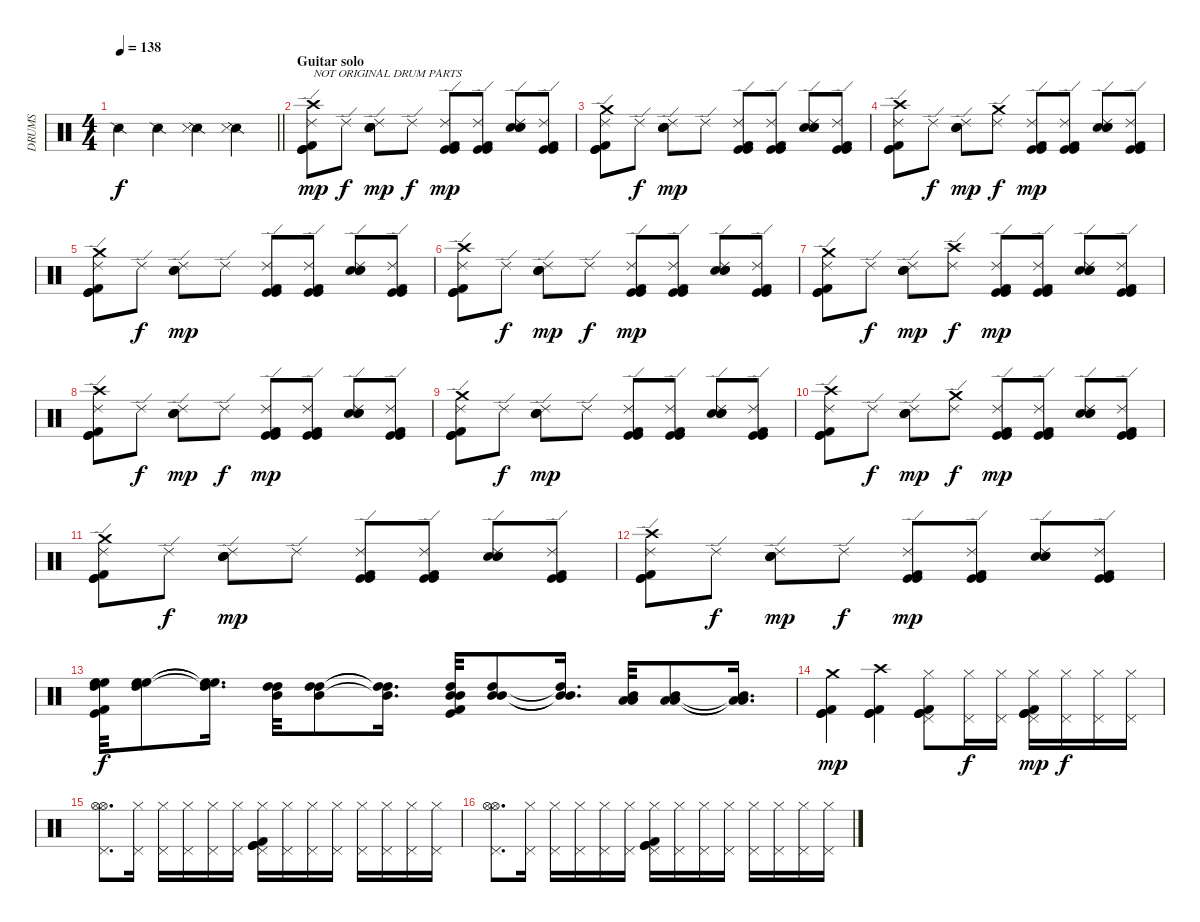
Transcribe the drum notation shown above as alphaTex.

\track ("DRUMS" "DRUMS") {instrument percussion}
\staff {score}
\articulation defaults
\ts (4 4)
\tempo 138
\clef neutral
\barLineRight lightlight
\ks c "Snare (side stick) 2".4{dy f} "Snare (side stick) 2".4
("Snare (side stick) 2" "Snare (side stick) 3").4 ("Snare (side stick) 2" "Snare (side stick) 3").4 |
\section ("" "Guitar solo")
("Ride (edge) 2" "Kick (hit) 2" "Kick (hit)" "Kick (hit)" "Crash high (hit)").8{txt "NOT ORIGINAL DRUM PARTS" dy mp} "Ride (edge) 2".8{dy f} ("Ride (edge) 2" "Electric Snare (hit)" "Snare (hit) 2" "Snare (hit) 2").8{dy mp} "Ride (edge) 2".8{dy f} ("Ride (edge) 2" "Kick (hit) 2" "Kick (hit)" "Kick (hit)").8{dy mp} ("Ride (edge) 2" "Kick (hit) 2" "Kick (hit)" "Kick (hit)").8 ("Ride (edge) 2" "Electric Snare (hit)" "Snare (hit) 2" "Snare (hit) 2").8 ("Ride (edge) 2" "Kick (hit) 2" "Kick (hit)" "Kick (hit)").8 |
("Ride (edge) 2" "Kick (hit) 2" "Kick (hit)" "Kick (hit)" "Crash medium (hit)").8 "Ride (edge) 2".8{dy f} ("Ride (edge) 2" "Electric Snare (hit)" "Snare (hit) 2" "Snare (hit) 2").8{dy mp} "Ride (edge) 2".8 ("Ride (edge) 2" "Kick (hit) 2" "Kick (hit)" "Kick (hit)").8 ("Ride (edge) 2" "Kick (hit) 2" "Kick (hit)" "Kick (hit)").8 ("Ride (edge) 2" "Electric Snare (hit)" "Snare (hit) 2" "Snare (hit) 2").8 ("Ride (edge) 2" "Kick (hit) 2" "Kick (hit)" "Kick (hit)").8 |
("Ride (edge) 2" "Kick (hit) 2" "Kick (hit)" "Kick (hit)" "Crash high (hit)").8 "Ride (edge) 2".8{dy f} ("Ride (edge) 2" "Electric Snare (hit)" "Snare (hit) 2" "Snare (hit) 2").8{dy mp} ("Ride (edge) 2" "Crash medium (hit)").8{dy f} ("Ride (edge) 2" "Kick (hit) 2" "Kick (hit)" "Kick (hit)").8{dy mp} ("Ride (edge) 2" "Kick (hit) 2" "Kick (hit)" "Kick (hit)").8 ("Ride (edge) 2" "Electric Snare (hit)" "Snare (hit) 2" "Snare (hit) 2").8 ("Ride (edge) 2" "Kick (hit) 2" "Kick (hit)" "Kick (hit)").8 |
("Ride (edge) 2" "Kick (hit) 2" "Kick (hit)" "Kick (hit)" "Crash medium (hit)").8 "Ride (edge) 2".8{dy f} ("Ride (edge) 2" "Electric Snare (hit)" "Snare (hit) 2" "Snare (hit) 2").8{dy mp} "Ride (edge) 2".8 ("Ride (edge) 2" "Kick (hit) 2" "Kick (hit)" "Kick (hit)").8 ("Ride (edge) 2" "Kick (hit) 2" "Kick (hit)" "Kick (hit)").8 ("Ride (edge) 2" "Electric Snare (hit)" "Snare (hit) 2" "Snare (hit) 2").8 ("Ride (edge) 2" "Kick (hit) 2" "Kick (hit)" "Kick (hit)").8 |
("Ride (edge) 2" "Kick (hit) 2" "Kick (hit)" "Kick (hit)" "Crash high (hit)").8 "Ride (edge) 2".8{dy f} ("Ride (edge) 2" "Electric Snare (hit)" "Snare (hit) 2" "Snare (hit) 2").8{dy mp} "Ride (edge) 2".8{dy f} ("Ride (edge) 2" "Kick (hit) 2" "Kick (hit)" "Kick (hit)").8{dy mp} ("Ride (edge) 2" "Kick (hit) 2" "Kick (hit)" "Kick (hit)").8 ("Ride (edge) 2" "Electric Snare (hit)" "Snare (hit) 2" "Snare (hit) 2").8 ("Ride (edge) 2" "Kick (hit) 2" "Kick (hit)" "Kick (hit)").8 |
("Ride (edge) 2" "Kick (hit) 2" "Kick (hit)" "Kick (hit)" "Crash medium (hit)").8 "Ride (edge) 2".8{dy f} ("Ride (edge) 2" "Electric Snare (hit)" "Snare (hit) 2" "Snare (hit) 2").8{dy mp} ("Ride (edge) 2" "Crash high (hit)").8{dy f} ("Ride (edge) 2" "Kick (hit) 2" "Kick (hit)" "Kick (hit)").8{dy mp} ("Ride (edge) 2" "Kick (hit) 2" "Kick (hit)" "Kick (hit)").8 ("Ride (edge) 2" "Electric Snare (hit)" "Snare (hit) 2" "Snare (hit) 2").8 ("Ride (edge) 2" "Kick (hit) 2" "Kick (hit)" "Kick (hit)").8 |
("Ride (edge) 2" "Kick (hit) 2" "Kick (hit)" "Kick (hit)" "Crash high (hit)").8 "Ride (edge) 2".8{dy f} ("Ride (edge) 2" "Electric Snare (hit)" "Snare (hit) 2" "Snare (hit) 2").8{dy mp} "Ride (edge) 2".8{dy f} ("Ride (edge) 2" "Kick (hit) 2" "Kick (hit)" "Kick (hit)").8{dy mp} ("Ride (edge) 2" "Kick (hit) 2" "Kick (hit)" "Kick (hit)").8 ("Ride (edge) 2" "Electric Snare (hit)" "Snare (hit) 2" "Snare (hit) 2").8 ("Ride (edge) 2" "Kick (hit) 2" "Kick (hit)" "Kick (hit)").8 |
("Ride (edge) 2" "Kick (hit) 2" "Kick (hit)" "Kick (hit)" "Crash medium (hit)").8 "Ride (edge) 2".8{dy f} ("Ride (edge) 2" "Electric Snare (hit)" "Snare (hit) 2" "Snare (hit) 2").8{dy mp} "Ride (edge) 2".8 ("Ride (edge) 2" "Kick (hit) 2" "Kick (hit)" "Kick (hit)").8 ("Ride (edge) 2" "Kick (hit) 2" "Kick (hit)" "Kick (hit)").8 ("Ride (edge) 2" "Electric Snare (hit)" "Snare (hit) 2" "Snare (hit) 2").8 ("Ride (edge) 2" "Kick (hit) 2" "Kick (hit)" "Kick (hit)").8 |
("Ride (edge) 2" "Kick (hit) 2" "Kick (hit)" "Kick (hit)" "Crash high (hit)").8 "Ride (edge) 2".8{dy f} ("Ride (edge) 2" "Electric Snare (hit)" "Snare (hit) 2" "Snare (hit) 2").8{dy mp} ("Ride (edge) 2" "Crash medium (hit)").8{dy f} ("Ride (edge) 2" "Kick (hit) 2" "Kick (hit)" "Kick (hit)").8{dy mp} ("Ride (edge) 2" "Kick (hit) 2" "Kick (hit)" "Kick (hit)").8 ("Ride (edge) 2" "Electric Snare (hit)" "Snare (hit) 2" "Snare (hit) 2").8 ("Ride (edge) 2" "Kick (hit) 2" "Kick (hit)" "Kick (hit)").8 |
("Ride (edge) 2" "Kick (hit) 2" "Kick (hit)" "Kick (hit)" "Crash medium (hit)").8 "Ride (edge) 2".8{dy f} ("Ride (edge) 2" "Electric Snare (hit)" "Snare (hit) 2" "Snare (hit) 2").8{dy mp} "Ride (edge) 2".8 ("Ride (edge) 2" "Kick (hit) 2" "Kick (hit)" "Kick (hit)").8 ("Ride (edge) 2" "Kick (hit) 2" "Kick (hit)" "Kick (hit)").8 ("Ride (edge) 2" "Electric Snare (hit)" "Snare (hit) 2" "Snare (hit) 2").8 ("Ride (edge) 2" "Kick (hit) 2" "Kick (hit)" "Kick (hit)").8 |
("Ride (edge) 2" "Kick (hit) 2" "Kick (hit)" "Kick (hit)" "Crash high (hit)").8 "Ride (edge) 2".8{dy f} ("Ride (edge) 2" "Electric Snare (hit)" "Snare (hit) 2" "Snare (hit) 2").8{dy mp} "Ride (edge) 2".8{dy f} ("Ride (edge) 2" "Kick (hit) 2" "Kick (hit)" "Kick (hit)").8{dy mp} ("Ride (edge) 2" "Kick (hit) 2" "Kick (hit)" "Kick (hit)").8 ("Ride (edge) 2" "Electric Snare (hit)" "Snare (hit) 2" "Snare (hit) 2").8 ("Ride (edge) 2" "Kick (hit) 2" "Kick (hit)" "Kick (hit)").8 |
("High Floor Tom (hit)" "High Tom (hit)" "High Floor Tom (hit)" "Kick (hit)" "Kick (hit) 2").32{dy f volume 12 balance 0} ("High Floor Tom (hit)" "High Tom (hit)" "High Floor Tom (hit)").8 ("High Floor Tom (hit)"{t} "High Tom (hit)"{t} "High Floor Tom (hit)"{t}).16{d} ("High Tom (hit)" "Mid Tom (hit)" "High Tom (hit)").32{volume 12 balance 4} ("High Tom (hit)" "Mid Tom (hit)" "High Tom (hit)").8 ("High Tom (hit)"{t} "Mid Tom (hit)"{t} "High Tom (hit)"{t}).16{d} ("High Tom (hit)" "Mid Tom (hit)" "Mid Tom (hit)" "Kick (hit)" "Kick (hit) 2").32{volume 12 balance 12} ("High Tom (hit)" "Mid Tom (hit)" "Mid Tom (hit)").8 ("High Tom (hit)"{t} "Mid Tom (hit)"{t} "Mid Tom (hit)"{t}).16{d} ("Low Tom (hit)" "Mid Tom (hit)" "Low Tom (hit)").32{volume 12 balance 16} ("Low Tom (hit)" "Mid Tom (hit)" "Low Tom (hit)").8 ("Low Tom (hit)"{t} "Mid Tom (hit)"{t} "Low Tom (hit)"{t}).16{d} |
("Kick (hit) 2" "Kick (hit)" "Kick (hit)" "Crash medium (hit)").4{dy mp volume 8 balance 8} ("Kick (hit) 2" "Kick (hit)" "Kick (hit)" "Crash high (hit)").4 ("Kick (hit) 2" "Kick (hit)" "Kick (hit)" "Hi-Hat (closed)" "Pedal Hi-Hat (hit)").8 ("Hi-Hat (closed)" "Pedal Hi-Hat (hit)").16{dy f} ("Hi-Hat (closed)" "Pedal Hi-Hat (hit)").16 ("Kick (hit) 2" "Kick (hit)" "Kick (hit)" "Hi-Hat (closed)" "Pedal Hi-Hat (hit)").16{dy mp} ("Hi-Hat (closed)" "Pedal Hi-Hat (hit)").16{dy f} ("Hi-Hat (closed)" "Pedal Hi-Hat (hit)").16 ("Hi-Hat (closed)" "Pedal Hi-Hat (hit)").16 |
("Hi-Hat (open)" "Pedal Hi-Hat (hit)" "Hi-Hat (open)").8{d volume 7} ("Hi-Hat (closed)" "Pedal Hi-Hat (hit)").16 ("Hi-Hat (closed)" "Pedal Hi-Hat (hit)").16 ("Hi-Hat (closed)" "Pedal Hi-Hat (hit)").16 ("Hi-Hat (closed)" "Pedal Hi-Hat (hit)").16 ("Hi-Hat (closed)" "Pedal Hi-Hat (hit)").16 ("Hi-Hat (closed)" "Pedal Hi-Hat (hit)" "Kick (hit) 2" "Kick (hit)" "Kick (hit)").16 ("Hi-Hat (closed)" "Pedal Hi-Hat (hit)").16 ("Hi-Hat (closed)" "Pedal Hi-Hat (hit)").16 ("Hi-Hat (closed)" "Pedal Hi-Hat (hit)").16 ("Hi-Hat (closed)" "Pedal Hi-Hat (hit)").16 ("Hi-Hat (closed)" "Pedal Hi-Hat (hit)").16 ("Hi-Hat (closed)" "Pedal Hi-Hat (hit)").16 ("Hi-Hat (closed)" "Pedal Hi-Hat (hit)").16 |
("Hi-Hat (open)" "Pedal Hi-Hat (hit)" "Hi-Hat (open)").8{d} ("Hi-Hat (closed)" "Pedal Hi-Hat (hit)").16 ("Hi-Hat (closed)" "Pedal Hi-Hat (hit)").16 ("Hi-Hat (closed)" "Pedal Hi-Hat (hit)").16 ("Hi-Hat (closed)" "Pedal Hi-Hat (hit)").16 ("Hi-Hat (closed)" "Pedal Hi-Hat (hit)").16 ("Hi-Hat (closed)" "Pedal Hi-Hat (hit)" "Kick (hit) 2" "Kick (hit)" "Kick (hit)").16 ("Hi-Hat (closed)" "Pedal Hi-Hat (hit)").16 ("Hi-Hat (closed)" "Pedal Hi-Hat (hit)").16 ("Hi-Hat (closed)" "Pedal Hi-Hat (hit)").16 ("Hi-Hat (closed)" "Pedal Hi-Hat (hit)").16 ("Hi-Hat (closed)" "Pedal Hi-Hat (hit)").16 ("Hi-Hat (closed)" "Pedal Hi-Hat (hit)").16 ("Hi-Hat (closed)" "Pedal Hi-Hat (hit)").16
